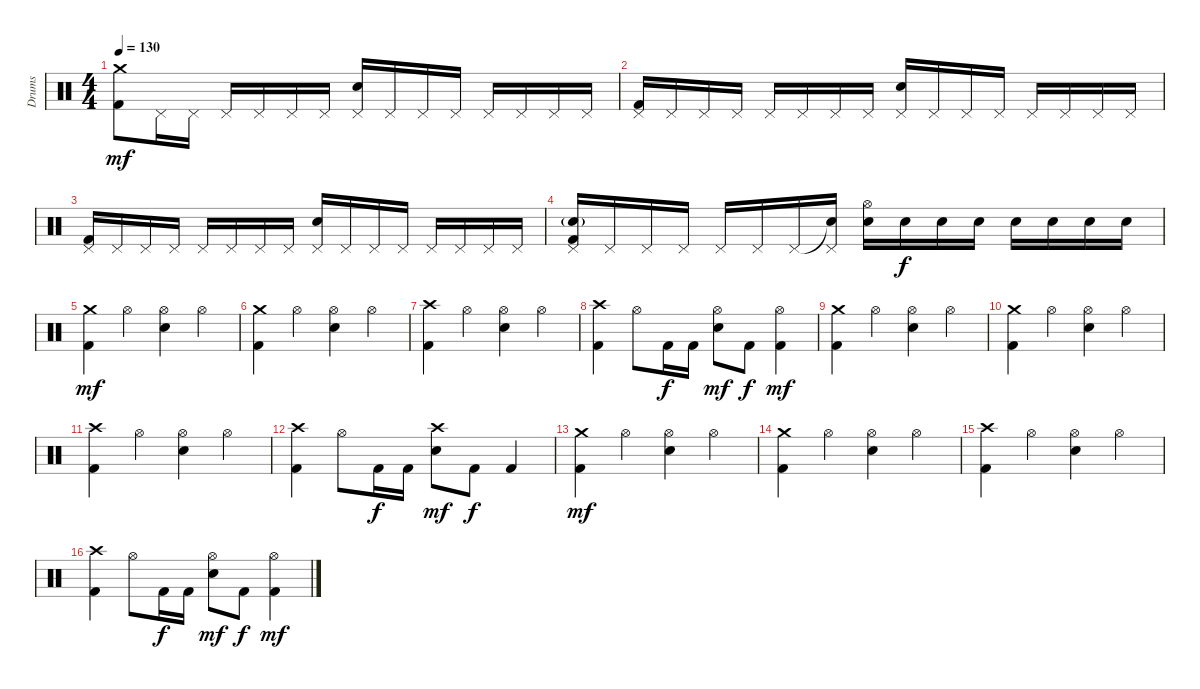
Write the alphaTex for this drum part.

\track ("Drums" "Drums") {instrument percussion}
\staff {score}
\articulation defaults
\ts (4 4)
\tempo 130
\clef neutral
\ks c
("Kick (hit) 2" "Crash medium (hit)").8{dy mf} "Pedal Hi-Hat (hit)".16 "Pedal Hi-Hat (hit)".16 "Pedal Hi-Hat (hit)".16 "Pedal Hi-Hat (hit)".16 "Pedal Hi-Hat (hit)".16 "Pedal Hi-Hat (hit)".16 ("Electric Snare (hit)" "Pedal Hi-Hat (hit)").16 "Pedal Hi-Hat (hit)".16 "Pedal Hi-Hat (hit)".16 "Pedal Hi-Hat (hit)".16 "Pedal Hi-Hat (hit)".16 "Pedal Hi-Hat (hit)".16 "Pedal Hi-Hat (hit)".16 "Pedal Hi-Hat (hit)".16 |
("Kick (hit) 2" "Pedal Hi-Hat (hit)").16 "Pedal Hi-Hat (hit)".16 "Pedal Hi-Hat (hit)".16 "Pedal Hi-Hat (hit)".16 "Pedal Hi-Hat (hit)".16 "Pedal Hi-Hat (hit)".16 "Pedal Hi-Hat (hit)".16 "Pedal Hi-Hat (hit)".16 ("Electric Snare (hit)" "Pedal Hi-Hat (hit)").16 "Pedal Hi-Hat (hit)".16 "Pedal Hi-Hat (hit)".16 "Pedal Hi-Hat (hit)".16 "Pedal Hi-Hat (hit)".16 "Pedal Hi-Hat (hit)".16 "Pedal Hi-Hat (hit)".16 "Pedal Hi-Hat (hit)".16 |
("Kick (hit) 2" "Pedal Hi-Hat (hit)").16 "Pedal Hi-Hat (hit)".16 "Pedal Hi-Hat (hit)".16 "Pedal Hi-Hat (hit)".16 "Pedal Hi-Hat (hit)".16 "Pedal Hi-Hat (hit)".16 "Pedal Hi-Hat (hit)".16 "Pedal Hi-Hat (hit)".16 ("Electric Snare (hit)" "Pedal Hi-Hat (hit)").16 "Pedal Hi-Hat (hit)".16 "Pedal Hi-Hat (hit)".16 "Pedal Hi-Hat (hit)".16 "Pedal Hi-Hat (hit)".16 "Pedal Hi-Hat (hit)".16 "Pedal Hi-Hat (hit)".16 "Pedal Hi-Hat (hit)".16 |
("Kick (hit) 2" "Snare (hit)"{g} "Pedal Hi-Hat (hit)").16 "Pedal Hi-Hat (hit)".16 "Pedal Hi-Hat (hit)".16 "Pedal Hi-Hat (hit)".16 "Pedal Hi-Hat (hit)".16 "Pedal Hi-Hat (hit)".16 "Pedal Hi-Hat (hit)".16 ("Snare (hit)"{t} "Pedal Hi-Hat (hit)").16 ("Electric Snare (hit)" "Hi-Hat (open)").16 "Electric Snare (hit)".16{dy f} "Electric Snare (hit)".16 "Electric Snare (hit)".16 "Electric Snare (hit)".16 "Electric Snare (hit)".16 "Electric Snare (hit)".16 "Electric Snare (hit)".16 |
("Kick (hit) 2" "Crash medium (hit)").4{dy mf} "Hi-Hat (open)".4 ("Electric Snare (hit)" "Hi-Hat (open)").4 "Hi-Hat (open)".4 |
("Kick (hit) 2" "Crash medium (hit)").4 "Hi-Hat (open)".4 ("Electric Snare (hit)" "Hi-Hat (open)").4 "Hi-Hat (open)".4 |
("Kick (hit) 2" "Crash high (hit)").4 "Hi-Hat (open)".4 ("Electric Snare (hit)" "Hi-Hat (open)").4 "Hi-Hat (open)".4 |
("Kick (hit) 2" "Crash high (hit)").4 "Hi-Hat (open)".8 "Kick (hit) 2".16{dy f} "Kick (hit) 2".16 ("Electric Snare (hit)" "Hi-Hat (open)").8{dy mf} "Kick (hit) 2".8{dy f} ("Kick (hit) 2" "Hi-Hat (open)").4{dy mf} |
("Kick (hit) 2" "Crash medium (hit)").4 "Hi-Hat (open)".4 ("Electric Snare (hit)" "Hi-Hat (open)").4 "Hi-Hat (open)".4 |
("Kick (hit) 2" "Crash medium (hit)").4 "Hi-Hat (open)".4 ("Electric Snare (hit)" "Hi-Hat (open)").4 "Hi-Hat (open)".4 |
("Kick (hit) 2" "Crash high (hit)").4 "Hi-Hat (open)".4 ("Electric Snare (hit)" "Hi-Hat (open)").4 "Hi-Hat (open)".4 |
("Kick (hit) 2" "Crash high (hit)").4 "Hi-Hat (open)".8 "Kick (hit) 2".16{dy f} "Kick (hit) 2".16 ("Electric Snare (hit)" "Crash high (hit)").8{dy mf} "Kick (hit) 2".8{dy f} "Kick (hit) 2".4 |
("Kick (hit) 2" "Crash medium (hit)").4{dy mf} "Hi-Hat (open)".4 ("Electric Snare (hit)" "Hi-Hat (open)").4 "Hi-Hat (open)".4 |
("Kick (hit) 2" "Crash medium (hit)").4 "Hi-Hat (open)".4 ("Electric Snare (hit)" "Hi-Hat (open)").4 "Hi-Hat (open)".4 |
("Kick (hit) 2" "Crash high (hit)").4 "Hi-Hat (open)".4 ("Electric Snare (hit)" "Hi-Hat (open)").4 "Hi-Hat (open)".4 |
("Kick (hit) 2" "Crash high (hit)").4 "Hi-Hat (open)".8 "Kick (hit) 2".16{dy f} "Kick (hit) 2".16 ("Electric Snare (hit)" "Hi-Hat (open)").8{dy mf} "Kick (hit) 2".8{dy f} ("Kick (hit) 2" "Hi-Hat (open)").4{dy mf}
